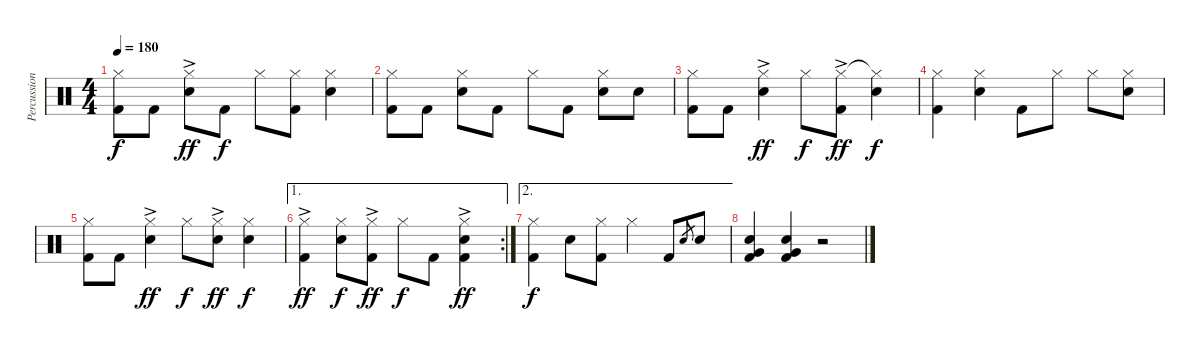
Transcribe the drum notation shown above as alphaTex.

\track ("Percussion" "Percussion") {instrument percussion}
\staff {score}
\articulation defaults
\ts (4 4)
\tempo 180
\clef neutral
\ks c
("Hi-Hat (closed)" "Kick (hit) 2").8{dy f} "Kick (hit) 2".8 ("Hi-Hat (closed)"{ac} "Snare (hit) 2").8{dy ff} "Kick (hit) 2".8{dy f} "Hi-Hat (closed)".8 ("Hi-Hat (closed)" "Kick (hit) 2").8 ("Hi-Hat (closed)" "Snare (hit) 2").4 |
("Hi-Hat (closed)" "Kick (hit) 2").8 "Kick (hit) 2".8 ("Hi-Hat (closed)" "Snare (hit) 2").8 "Kick (hit) 2".8 "Hi-Hat (closed)".8 "Kick (hit) 2".8 ("Hi-Hat (closed)" "Snare (hit) 2").8 "Snare (hit) 2".8 |
("Hi-Hat (closed)" "Kick (hit) 2").8 "Kick (hit) 2".8 ("Hi-Hat (closed)"{ac} "Snare (hit) 2").4{dy ff} "Hi-Hat (closed)".8{dy f} ("Hi-Hat (closed)"{ac} "Kick (hit) 2").8{dy ff} ("Hi-Hat (closed)"{t} "Snare (hit) 2").4{dy f} |
("Hi-Hat (closed)" "Kick (hit) 2").4 ("Hi-Hat (closed)" "Snare (hit) 2").4 "Kick (hit) 2".8 "Hi-Hat (closed)".8 "Hi-Hat (closed)".8 ("Hi-Hat (closed)" "Snare (hit) 2").8 |
("Hi-Hat (closed)" "Kick (hit) 2").8 "Kick (hit) 2".8 ("Hi-Hat (closed)"{ac} "Snare (hit) 2").4{dy ff} "Hi-Hat (closed)".8{dy f} ("Hi-Hat (closed)"{ac} "Snare (hit) 2").8{dy ff} ("Hi-Hat (closed)" "Snare (hit) 2").4{dy f} |
\ae 1
\rc 2
("Hi-Hat (closed)"{ac} "Kick (hit) 2").4{dy ff} ("Hi-Hat (closed)" "Snare (hit) 2").8{dy f} ("Hi-Hat (closed)"{ac} "Kick (hit) 2").8{dy ff} "Hi-Hat (closed)".8{dy f} "Kick (hit) 2".8 ("Hi-Hat (closed)"{ac} "Kick (hit) 2" "Snare (hit) 2").4{dy ff} |
\ae 2
("Hi-Hat (closed)" "Kick (hit) 2").4{dy f} "Snare (hit) 2".8 ("Hi-Hat (closed)" "Kick (hit) 2").8 "Hi-Hat (closed)".4 "Kick (hit) 2".8 "Snare (hit) 2".8{gr} "Snare (hit) 2".8 |
("Snare (hit) 2" "Very Low Tom (hit)" "Kick (hit) 2").4 ("Snare (hit) 2" "Very Low Tom (hit)" "Kick (hit) 2").4 r.2
